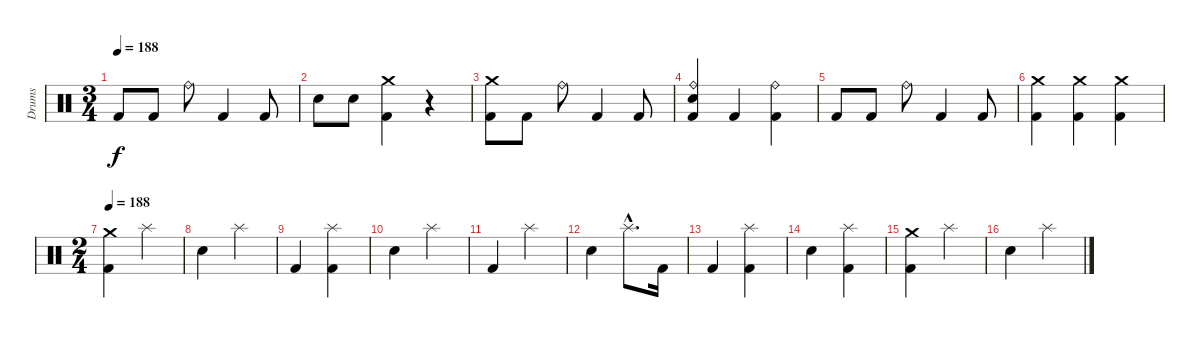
\track ("Drums" "Drums") {instrument percussion}
\staff {score}
\articulation defaults
\ts (3 4)
\tempo 188
\clef neutral
\ks c "Kick (hit) 2".8{dy f} "Kick (hit) 2".8 "Ride (bell)".8 "Kick (hit) 2".4 "Kick (hit) 2".8
|
"Electric Snare (hit)".8 "Electric Snare (hit)".8 ("Crash medium (hit)" "Kick (hit) 2").4 r.4 |
("Crash medium (hit)" "Kick (hit) 2").8 "Kick (hit) 2".8 "Ride (bell)".8 "Kick (hit) 2".4 "Kick (hit) 2".8 |
("Electric Snare (hit)" "Ride (bell)" "Kick (hit) 2").4 "Kick (hit) 2".4 ("Ride (bell)" "Kick (hit) 2").4 |
"Kick (hit) 2".8 "Kick (hit) 2".8 "Ride (bell)".8 "Kick (hit) 2".4 "Kick (hit) 2".8 |
("Crash medium (hit)" "Kick (hit) 2").4 ("Crash medium (hit)" "Kick (hit) 2").4 ("Crash medium (hit)" "Kick (hit) 2").4 |
\ts (2 4)
\tempo 188
("Crash medium (hit)" "Kick (hit) 2").4 "Splash (hit)".4 |
"Electric Snare (hit)".4 "Splash (hit)".4 |
"Kick (hit) 2".4 ("Splash (hit)" "Kick (hit) 2").4 |
"Electric Snare (hit)".4 "Splash (hit)".4 |
"Kick (hit) 2".4 "Splash (hit)".4 |
"Electric Snare (hit)".4 "Splash (hit)"{hac}.8{d} "Kick (hit) 2".16 |
"Kick (hit) 2".4 ("Splash (hit)" "Kick (hit) 2").4 |
"Electric Snare (hit)".4 ("Splash (hit)" "Kick (hit) 2").4 |
("Crash medium (hit)" "Kick (hit) 2").4 "Splash (hit)".4 |
"Electric Snare (hit)".4 "Splash (hit)".4
